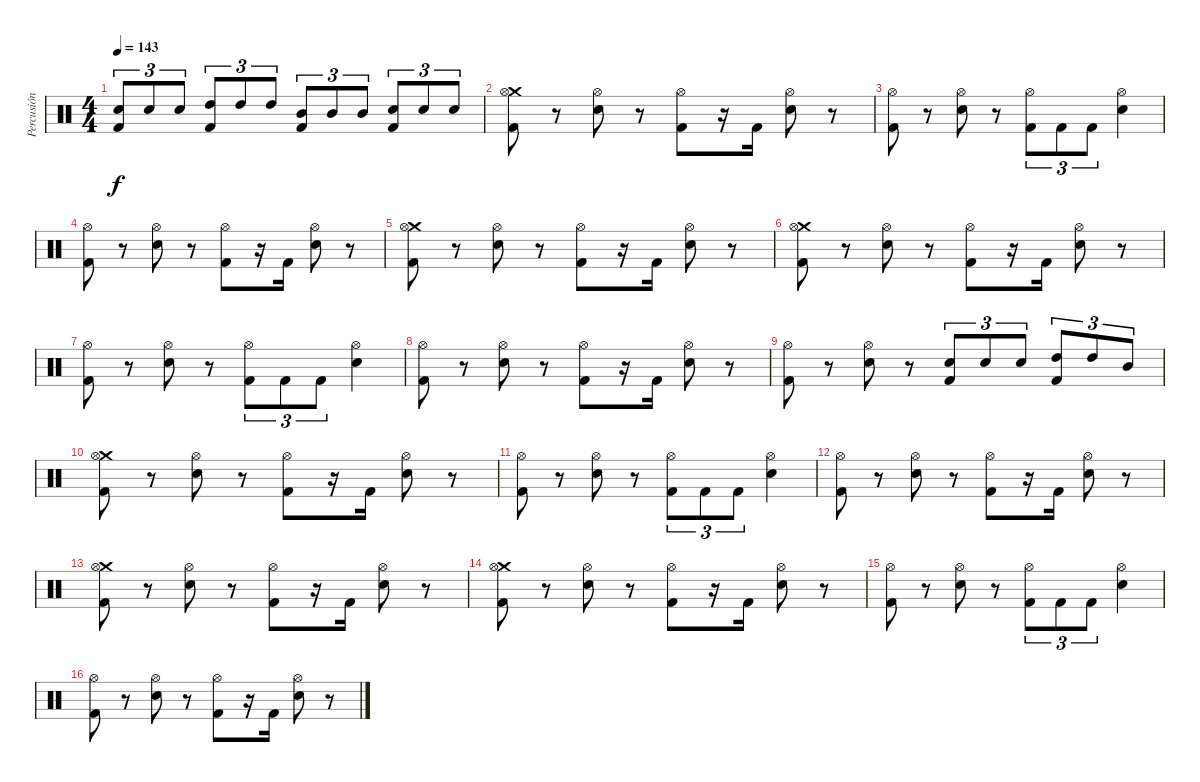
\track ("Percusión" "Percusión") {instrument percussion}
\staff {score}
\articulation defaults
\ts (4 4)
\tempo 143
\clef neutral
\ks c
("Electric Snare (hit)" "Kick (hit) 2").8{tu (3 2) dy f} "Electric Snare (hit)".8{tu (3 2)} "Electric Snare (hit)".8{tu (3 2)} ("High Tom (hit)" "Kick (hit) 2").8{tu (3 2)} "High Tom (hit)".8{tu (3 2)} "High Tom (hit)".8{tu (3 2)} ("Mid Tom (hit)" "Kick (hit) 2").8{tu (3 2)} "Mid Tom (hit)".8{tu (3 2)} "Mid Tom (hit)".8{tu (3 2)} ("Electric Snare (hit)" "Kick (hit) 2").8{tu (3 2)} "Electric Snare (hit)".8{tu (3 2)} "Electric Snare (hit)".8{tu (3 2)} |
("Crash medium (hit)" "Hi-Hat (open)" "Kick (hit) 2").8 r.8 ("Hi-Hat (open)" "Electric Snare (hit)").8 r.8 ("Hi-Hat (open)" "Kick (hit) 2").8 r.16 "Kick (hit) 2".16 ("Electric Snare (hit)" "Hi-Hat (open)").8 r.8 |
("Hi-Hat (open)" "Kick (hit) 2").8 r.8 ("Hi-Hat (open)" "Electric Snare (hit)").8 r.8 ("Hi-Hat (open)" "Kick (hit) 2").8{tu (3 2)} "Kick (hit) 2".8{tu (3 2)} "Kick (hit) 2".8{tu (3 2)} ("Hi-Hat (open)" "Electric Snare (hit)").4 |
("Hi-Hat (open)" "Kick (hit) 2").8 r.8 ("Hi-Hat (open)" "Electric Snare (hit)").8 r.8 ("Hi-Hat (open)" "Kick (hit) 2").8 r.16 "Kick (hit) 2".16 ("Electric Snare (hit)" "Hi-Hat (open)").8 r.8 |
("Crash medium (hit)" "Hi-Hat (open)" "Kick (hit) 2").8 r.8 ("Hi-Hat (open)" "Electric Snare (hit)").8 r.8 ("Hi-Hat (open)" "Kick (hit) 2").8 r.16 "Kick (hit) 2".16 ("Electric Snare (hit)" "Hi-Hat (open)").8 r.8 |
("Crash medium (hit)" "Hi-Hat (open)" "Kick (hit) 2").8 r.8 ("Hi-Hat (open)" "Electric Snare (hit)").8 r.8 ("Hi-Hat (open)" "Kick (hit) 2").8 r.16 "Kick (hit) 2".16 ("Electric Snare (hit)" "Hi-Hat (open)").8 r.8 |
("Hi-Hat (open)" "Kick (hit) 2").8 r.8 ("Hi-Hat (open)" "Electric Snare (hit)").8 r.8 ("Hi-Hat (open)" "Kick (hit) 2").8{tu (3 2)} "Kick (hit) 2".8{tu (3 2)} "Kick (hit) 2".8{tu (3 2)} ("Hi-Hat (open)" "Electric Snare (hit)").4 |
("Hi-Hat (open)" "Kick (hit) 2").8 r.8 ("Hi-Hat (open)" "Electric Snare (hit)").8 r.8 ("Hi-Hat (open)" "Kick (hit) 2").8 r.16 "Kick (hit) 2".16 ("Electric Snare (hit)" "Hi-Hat (open)").8 r.8 |
("Hi-Hat (open)" "Kick (hit) 2").8 r.8 ("Hi-Hat (open)" "Electric Snare (hit)").8 r.8 ("Electric Snare (hit)" "Kick (hit) 2").8{tu (3 2)} "Electric Snare (hit)".8{tu (3 2)} "Electric Snare (hit)".8{tu (3 2)} ("High Tom (hit)" "Kick (hit) 2").8{tu (3 2)} "High Tom (hit)".8{tu (3 2)} "Mid Tom (hit)".8{tu (3 2)} |
("Crash medium (hit)" "Hi-Hat (open)" "Kick (hit) 2").8 r.8 ("Hi-Hat (open)" "Electric Snare (hit)").8 r.8 ("Hi-Hat (open)" "Kick (hit) 2").8 r.16 "Kick (hit) 2".16 ("Electric Snare (hit)" "Hi-Hat (open)").8 r.8 |
("Hi-Hat (open)" "Kick (hit) 2").8 r.8 ("Hi-Hat (open)" "Electric Snare (hit)").8 r.8 ("Hi-Hat (open)" "Kick (hit) 2").8{tu (3 2)} "Kick (hit) 2".8{tu (3 2)} "Kick (hit) 2".8{tu (3 2)} ("Hi-Hat (open)" "Electric Snare (hit)").4 |
("Hi-Hat (open)" "Kick (hit) 2").8 r.8 ("Hi-Hat (open)" "Electric Snare (hit)").8 r.8 ("Hi-Hat (open)" "Kick (hit) 2").8 r.16 "Kick (hit) 2".16 ("Electric Snare (hit)" "Hi-Hat (open)").8 r.8 |
("Crash medium (hit)" "Hi-Hat (open)" "Kick (hit) 2").8 r.8 ("Hi-Hat (open)" "Electric Snare (hit)").8 r.8 ("Hi-Hat (open)" "Kick (hit) 2").8 r.16 "Kick (hit) 2".16 ("Electric Snare (hit)" "Hi-Hat (open)").8 r.8 |
("Crash medium (hit)" "Hi-Hat (open)" "Kick (hit) 2").8 r.8 ("Hi-Hat (open)" "Electric Snare (hit)").8 r.8 ("Hi-Hat (open)" "Kick (hit) 2").8 r.16 "Kick (hit) 2".16 ("Electric Snare (hit)" "Hi-Hat (open)").8 r.8 |
("Hi-Hat (open)" "Kick (hit) 2").8 r.8 ("Hi-Hat (open)" "Electric Snare (hit)").8 r.8 ("Hi-Hat (open)" "Kick (hit) 2").8{tu (3 2)} "Kick (hit) 2".8{tu (3 2)} "Kick (hit) 2".8{tu (3 2)} ("Hi-Hat (open)" "Electric Snare (hit)").4 |
("Hi-Hat (open)" "Kick (hit) 2").8 r.8 ("Hi-Hat (open)" "Electric Snare (hit)").8 r.8 ("Hi-Hat (open)" "Kick (hit) 2").8 r.16 "Kick (hit) 2".16 ("Electric Snare (hit)" "Hi-Hat (open)").8 r.8
